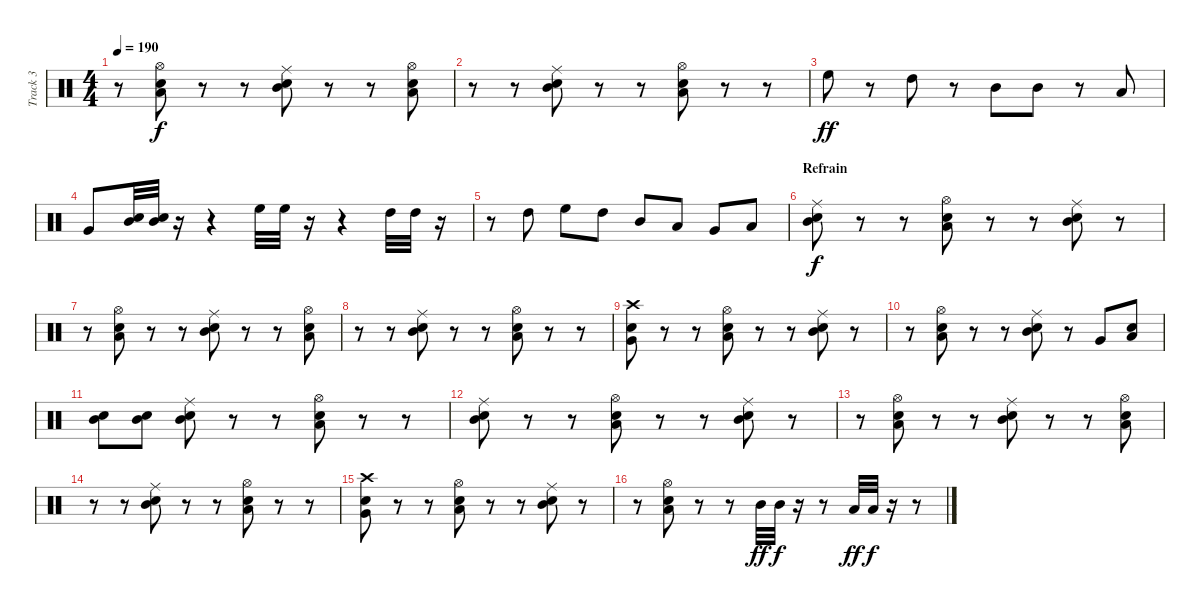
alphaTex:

\track ("Track 3" "Track 3") {instrument percussion}
\staff {score}
\articulation defaults
\ts (4 4)
\tempo 190
\clef neutral
\ks c
r.8{dy f} ("Low Tom (hit)" "Snare (hit) 2" "Hi-Hat (open)").8 r.8 r.8 ("Mid Tom (hit)" "Snare (hit) 2" "Ride (middle)").8 r.8 r.8 ("Low Tom (hit)" "Snare (hit) 2" "Hi-Hat (open)").8 |
r.8 r.8 ("Mid Tom (hit)" "Snare (hit) 2" "Ride (middle)").8 r.8 r.8 ("Low Tom (hit)" "Snare (hit) 2" "Hi-Hat (open)").8 r.8 r.8 |
"High Floor Tom (hit)".8{dy ff} r.8 "High Tom (hit)".8 r.8 "Mid Tom (hit)".8 "Mid Tom (hit)".8 r.8 "Low Tom (hit)".8 |
"Very Low Tom (hit)".8 ("Mid Tom (hit)" "Snare (hit) 2").32 ("Mid Tom (hit)" "Snare (hit) 2").32 r.16 r.4 "High Floor Tom (hit)".32 "High Floor Tom (hit)".32 r.16 r.4 "High Tom (hit)".32 "High Tom (hit)".32 r.16 |
r.8 "High Tom (hit)".8 "High Floor Tom (hit)".8 "High Tom (hit)".8 "Mid Tom (hit)".8 "Low Tom (hit)".8 "Very Low Tom (hit)".8 "Low Floor Tom (hit)".8 |
\section ("" "Refrain")
("Mid Tom (hit)" "Snare (hit) 2" "Ride (middle)").8{dy f} r.8 r.8 ("Low Tom (hit)" "Snare (hit) 2" "Hi-Hat (open)").8 r.8 r.8 ("Mid Tom (hit)" "Snare (hit) 2" "Ride (middle)").8 r.8 |
r.8 ("Low Tom (hit)" "Snare (hit) 2" "Hi-Hat (open)").8 r.8 r.8 ("Mid Tom (hit)" "Snare (hit) 2" "Ride (middle)").8 r.8 r.8 ("Low Tom (hit)" "Snare (hit) 2" "Hi-Hat (open)").8 |
r.8 r.8 ("Mid Tom (hit)" "Snare (hit) 2" "Ride (middle)").8 r.8 r.8 ("Low Tom (hit)" "Snare (hit) 2" "Hi-Hat (open)").8 r.8 r.8 |
("Very Low Tom (hit)" "Snare (hit) 2" "Crash high (hit)").8 r.8 r.8 ("Low Tom (hit)" "Snare (hit) 2" "Hi-Hat (open)").8 r.8 r.8 ("Mid Tom (hit)" "Snare (hit) 2" "Ride (middle)").8 r.8 |
r.8 ("Low Tom (hit)" "Snare (hit) 2" "Hi-Hat (open)").8 r.8 r.8 ("Mid Tom (hit)" "Snare (hit) 2" "Ride (middle)").8 r.8 "Very Low Tom (hit)".8 ("Electric Snare (hit)" "Low Tom (hit)").8 |
("Electric Snare (hit)" "Mid Tom (hit)").8 ("Electric Snare (hit)" "Mid Tom (hit)").8 ("Mid Tom (hit)" "Snare (hit) 2" "Ride (middle)").8 r.8 r.8 ("Low Tom (hit)" "Snare (hit) 2" "Hi-Hat (open)").8 r.8 r.8 |
("Mid Tom (hit)" "Snare (hit) 2" "Ride (middle)").8 r.8 r.8 ("Low Tom (hit)" "Snare (hit) 2" "Hi-Hat (open)").8 r.8 r.8 ("Mid Tom (hit)" "Snare (hit) 2" "Ride (middle)").8 r.8 |
r.8 ("Low Tom (hit)" "Snare (hit) 2" "Hi-Hat (open)").8 r.8 r.8 ("Mid Tom (hit)" "Snare (hit) 2" "Ride (middle)").8 r.8 r.8 ("Low Tom (hit)" "Snare (hit) 2" "Hi-Hat (open)").8 |
r.8 r.8 ("Mid Tom (hit)" "Snare (hit) 2" "Ride (middle)").8 r.8 r.8 ("Low Tom (hit)" "Snare (hit) 2" "Hi-Hat (open)").8 r.8 r.8 |
("Very Low Tom (hit)" "Snare (hit) 2" "Crash high (hit)").8 r.8 r.8 ("Low Tom (hit)" "Snare (hit) 2" "Hi-Hat (open)").8 r.8 r.8 ("Mid Tom (hit)" "Snare (hit) 2" "Ride (middle)").8 r.8 |
r.8 ("Low Tom (hit)" "Snare (hit) 2" "Hi-Hat (open)").8 r.8 r.8 "Mid Tom (hit)".32{dy ff} "Mid Tom (hit)".32{dy f} r.16 r.8 "Low Tom (hit)".32{dy ff} "Low Tom (hit)".32{dy f} r.16 r.8
